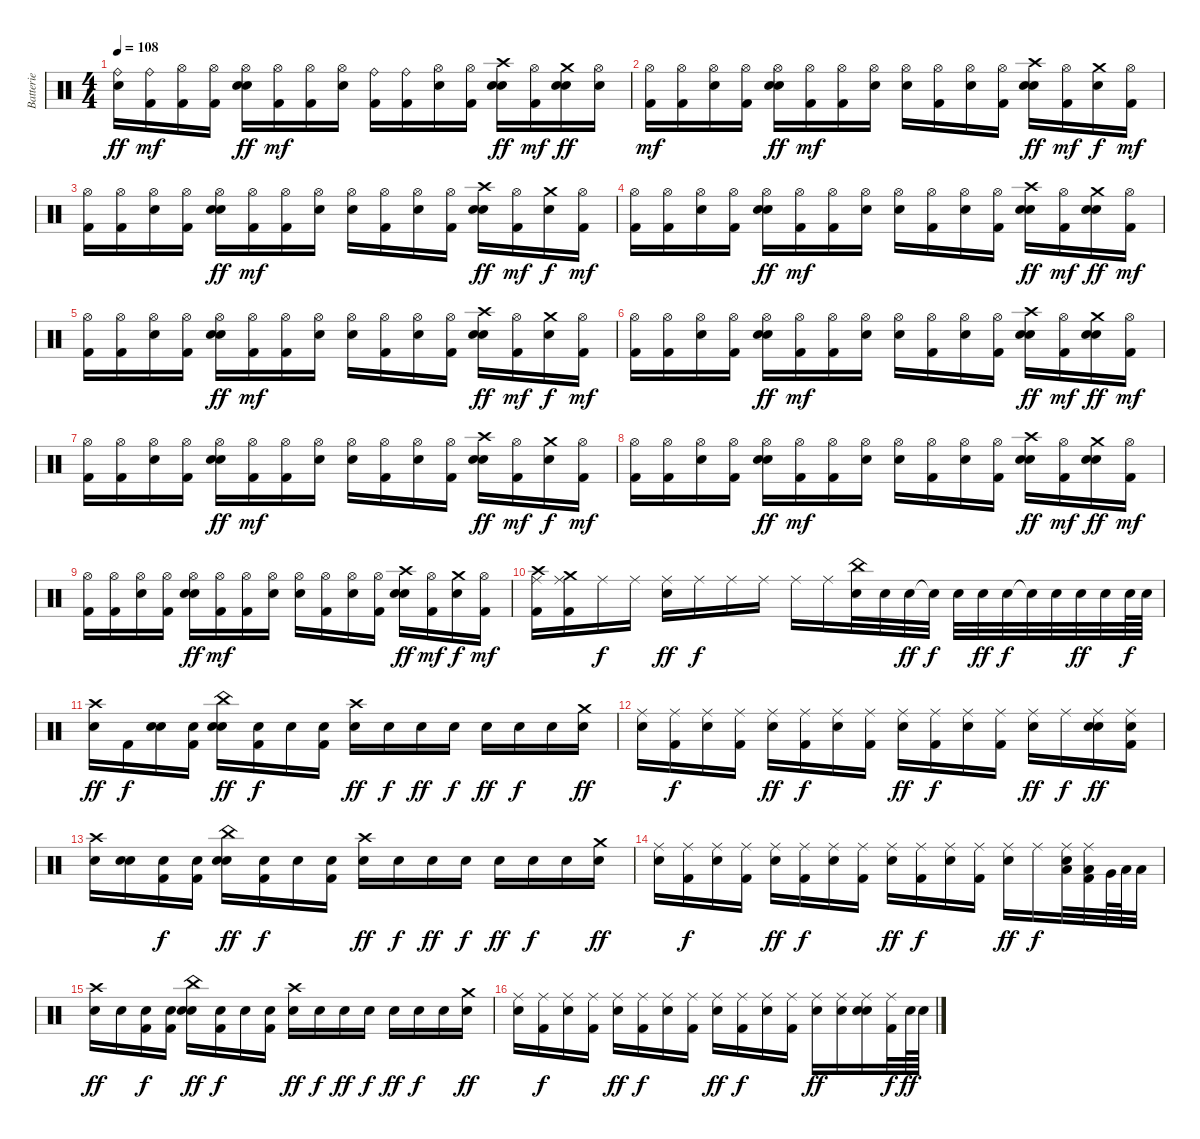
\track ("Batterie" "Batterie") {instrument percussion}
\staff {score}
\articulation defaults
\ts (4 4)
\tempo 108
\clef neutral
\ks c
("Ride (bell)" "Snare (hit) 2").16{dy ff} ("Ride (bell)" "Kick (hit) 2").16{dy mf} ("Hi-Hat (open)" "Kick (hit) 2").16 ("Hi-Hat (open)" "Kick (hit) 2").16 ("Hi-Hat (open)" "Snare (hit) 2" "Snare (hit)").16{dy ff} ("Hi-Hat (open)" "Kick (hit) 2").16{dy mf} ("Hi-Hat (open)" "Kick (hit) 2").16 ("Hi-Hat (open)" "Snare (hit)").16 ("Ride (bell)" "Kick (hit) 2").16 ("Ride (bell)" "Kick (hit) 2").16 ("Hi-Hat (open)" "Snare (hit)").16 ("Hi-Hat (open)" "Kick (hit) 2").16 ("Crash high (hit)" "Snare (hit) 2" "Snare (hit)").16{dy ff} ("Hi-Hat (open)" "Kick (hit) 2").16{dy mf} ("Crash medium (hit)" "Snare (hit) 2" "Snare (hit)").16{dy ff} ("Hi-Hat (open)" "Snare (hit) 2").16 |
("Hi-Hat (open)" "Kick (hit) 2").16{dy mf} ("Hi-Hat (open)" "Kick (hit) 2").16 ("Hi-Hat (open)" "Snare (hit)").16 ("Hi-Hat (open)" "Kick (hit) 2").16 ("Hi-Hat (open)" "Snare (hit) 2" "Snare (hit)").16{dy ff} ("Hi-Hat (open)" "Kick (hit) 2").16{dy mf} ("Hi-Hat (open)" "Kick (hit) 2").16 ("Hi-Hat (open)" "Snare (hit)").16 ("Hi-Hat (open)" "Snare (hit)").16 ("Hi-Hat (open)" "Kick (hit) 2").16 ("Hi-Hat (open)" "Snare (hit)").16 ("Hi-Hat (open)" "Kick (hit) 2").16 ("Crash high (hit)" "Snare (hit) 2" "Snare (hit)").16{dy ff} ("Hi-Hat (open)" "Kick (hit) 2").16{dy mf} ("Crash medium (hit)" "Snare (hit)").16{dy f} ("Hi-Hat (open)" "Kick (hit) 2").16{dy mf} |
("Hi-Hat (open)" "Kick (hit) 2").16 ("Hi-Hat (open)" "Kick (hit) 2").16 ("Hi-Hat (open)" "Snare (hit)").16 ("Hi-Hat (open)" "Kick (hit) 2").16 ("Hi-Hat (open)" "Snare (hit) 2" "Snare (hit)").16{dy ff} ("Hi-Hat (open)" "Kick (hit) 2").16{dy mf} ("Hi-Hat (open)" "Kick (hit) 2").16 ("Hi-Hat (open)" "Snare (hit)").16 ("Hi-Hat (open)" "Snare (hit)").16 ("Hi-Hat (open)" "Kick (hit) 2").16 ("Hi-Hat (open)" "Snare (hit)").16 ("Hi-Hat (open)" "Kick (hit) 2").16 ("Crash high (hit)" "Snare (hit) 2" "Snare (hit)").16{dy ff} ("Hi-Hat (open)" "Kick (hit) 2").16{dy mf} ("Crash medium (hit)" "Snare (hit)").16{dy f} ("Hi-Hat (open)" "Kick (hit) 2").16{dy mf} |
("Hi-Hat (open)" "Kick (hit) 2").16 ("Hi-Hat (open)" "Kick (hit) 2").16 ("Hi-Hat (open)" "Snare (hit)").16 ("Hi-Hat (open)" "Kick (hit) 2").16 ("Hi-Hat (open)" "Snare (hit) 2" "Snare (hit)").16{dy ff} ("Hi-Hat (open)" "Kick (hit) 2").16{dy mf} ("Hi-Hat (open)" "Kick (hit) 2").16 ("Hi-Hat (open)" "Snare (hit)").16 ("Hi-Hat (open)" "Snare (hit)").16 ("Hi-Hat (open)" "Kick (hit) 2").16 ("Hi-Hat (open)" "Snare (hit)").16 ("Hi-Hat (open)" "Kick (hit) 2").16 ("Crash high (hit)" "Snare (hit) 2" "Snare (hit)").16{dy ff} ("Hi-Hat (open)" "Kick (hit) 2").16{dy mf} ("Crash medium (hit)" "Snare (hit) 2" "Snare (hit)").16{dy ff} ("Hi-Hat (open)" "Kick (hit) 2").16{dy mf} |
("Hi-Hat (open)" "Kick (hit) 2").16 ("Hi-Hat (open)" "Kick (hit) 2").16 ("Hi-Hat (open)" "Snare (hit)").16 ("Hi-Hat (open)" "Kick (hit) 2").16 ("Hi-Hat (open)" "Snare (hit) 2" "Snare (hit)").16{dy ff} ("Hi-Hat (open)" "Kick (hit) 2").16{dy mf} ("Hi-Hat (open)" "Kick (hit) 2").16 ("Hi-Hat (open)" "Snare (hit)").16 ("Hi-Hat (open)" "Snare (hit)").16 ("Hi-Hat (open)" "Kick (hit) 2").16 ("Hi-Hat (open)" "Snare (hit)").16 ("Hi-Hat (open)" "Kick (hit) 2").16 ("Crash high (hit)" "Snare (hit) 2" "Snare (hit)").16{dy ff} ("Hi-Hat (open)" "Kick (hit) 2").16{dy mf} ("Crash medium (hit)" "Snare (hit)").16{dy f} ("Hi-Hat (open)" "Kick (hit) 2").16{dy mf} |
("Hi-Hat (open)" "Kick (hit) 2").16 ("Hi-Hat (open)" "Kick (hit) 2").16 ("Hi-Hat (open)" "Snare (hit)").16 ("Hi-Hat (open)" "Kick (hit) 2").16 ("Hi-Hat (open)" "Snare (hit) 2" "Snare (hit)").16{dy ff} ("Hi-Hat (open)" "Kick (hit) 2").16{dy mf} ("Hi-Hat (open)" "Kick (hit) 2").16 ("Hi-Hat (open)" "Snare (hit)").16 ("Hi-Hat (open)" "Snare (hit)").16 ("Hi-Hat (open)" "Kick (hit) 2").16 ("Hi-Hat (open)" "Snare (hit)").16 ("Hi-Hat (open)" "Kick (hit) 2").16 ("Crash high (hit)" "Snare (hit) 2" "Snare (hit)").16{dy ff} ("Hi-Hat (open)" "Kick (hit) 2").16{dy mf} ("Crash medium (hit)" "Snare (hit) 2" "Snare (hit)").16{dy ff} ("Hi-Hat (open)" "Kick (hit) 2").16{dy mf} |
("Hi-Hat (open)" "Kick (hit) 2").16 ("Hi-Hat (open)" "Kick (hit) 2").16 ("Hi-Hat (open)" "Snare (hit)").16 ("Hi-Hat (open)" "Kick (hit) 2").16 ("Hi-Hat (open)" "Snare (hit) 2" "Snare (hit)").16{dy ff} ("Hi-Hat (open)" "Kick (hit) 2").16{dy mf} ("Hi-Hat (open)" "Kick (hit) 2").16 ("Hi-Hat (open)" "Snare (hit)").16 ("Hi-Hat (open)" "Snare (hit)").16 ("Hi-Hat (open)" "Kick (hit) 2").16 ("Hi-Hat (open)" "Snare (hit)").16 ("Hi-Hat (open)" "Kick (hit) 2").16 ("Crash high (hit)" "Snare (hit) 2" "Snare (hit)").16{dy ff} ("Hi-Hat (open)" "Kick (hit) 2").16{dy mf} ("Crash medium (hit)" "Snare (hit)").16{dy f} ("Hi-Hat (open)" "Kick (hit) 2").16{dy mf} |
("Hi-Hat (open)" "Kick (hit) 2").16 ("Hi-Hat (open)" "Kick (hit) 2").16 ("Hi-Hat (open)" "Snare (hit)").16 ("Hi-Hat (open)" "Kick (hit) 2").16 ("Hi-Hat (open)" "Snare (hit) 2" "Snare (hit)").16{dy ff} ("Hi-Hat (open)" "Kick (hit) 2").16{dy mf} ("Hi-Hat (open)" "Kick (hit) 2").16 ("Hi-Hat (open)" "Snare (hit)").16 ("Hi-Hat (open)" "Snare (hit)").16 ("Hi-Hat (open)" "Kick (hit) 2").16 ("Hi-Hat (open)" "Snare (hit)").16 ("Hi-Hat (open)" "Kick (hit) 2").16 ("Crash high (hit)" "Snare (hit) 2" "Snare (hit)").16{dy ff} ("Hi-Hat (open)" "Kick (hit) 2").16{dy mf} ("Crash medium (hit)" "Snare (hit) 2" "Snare (hit)").16{dy ff} ("Hi-Hat (open)" "Kick (hit) 2").16{dy mf} |
("Hi-Hat (open)" "Kick (hit) 2").16 ("Hi-Hat (open)" "Kick (hit) 2").16 ("Hi-Hat (open)" "Snare (hit)").16 ("Hi-Hat (open)" "Kick (hit) 2").16 ("Hi-Hat (open)" "Snare (hit) 2" "Snare (hit)").16{dy ff} ("Hi-Hat (open)" "Kick (hit) 2").16{dy mf} ("Hi-Hat (open)" "Kick (hit) 2").16 ("Hi-Hat (open)" "Snare (hit)").16 ("Hi-Hat (open)" "Snare (hit)").16 ("Hi-Hat (open)" "Kick (hit) 2").16 ("Hi-Hat (open)" "Snare (hit)").16 ("Hi-Hat (open)" "Kick (hit) 2").16 ("Crash high (hit)" "Snare (hit) 2" "Snare (hit)").16{dy ff} ("Hi-Hat (open)" "Kick (hit) 2").16{dy mf} ("Crash medium (hit)" "Snare (hit)").16{dy f} ("Hi-Hat (open)" "Kick (hit) 2").16{dy mf} |
("Crash high (hit)" "Ride (middle)" "Kick (hit) 2").16 ("Crash medium (hit)" "Ride (middle)" "Kick (hit) 2").16 "Ride (middle)".16{dy f} "Ride (middle)".16 ("Ride (middle)" "Snare (hit) 2").16{dy ff} "Ride (middle)".16{dy f} "Ride (middle)".16 "Ride (middle)".16 "Ride (middle)".16 "Ride (middle)".16 ("China (hit)" "Snare (hit) 2").32 "Snare (hit) 2".32 "Snare (hit) 2".32{dy ff} "Snare (hit) 2"{t}.32{dy f} "Snare (hit) 2".32 "Snare (hit) 2".32{dy ff} "Snare (hit) 2".32{dy f} "Snare (hit) 2"{t}.32 "Snare (hit) 2".32 "Snare (hit) 2".32{dy ff} "Snare (hit) 2".32 "Snare (hit) 2".64{dy f} "Snare (hit) 2".64 |
("Crash high (hit)" "Snare (hit) 2").16{dy ff} "Kick (hit) 2".16{dy f} ("Snare (hit)" "Snare (hit)").16 ("Snare (hit)" "Kick (hit) 2").16 ("China (hit)" "Snare (hit) 2" "Snare (hit)").16{dy ff} ("Snare (hit)" "Kick (hit) 2").16{dy f} "Snare (hit)".16 ("Snare (hit)" "Kick (hit) 2").16 ("Crash high (hit)" "Snare (hit) 2").16{dy ff} "Snare (hit)".16{dy f} "Snare (hit) 2".16{dy ff} "Snare (hit)".16{dy f} "Snare (hit) 2".16{dy ff} "Snare (hit)".16{dy f} "Snare (hit) 2".16 ("Crash medium (hit)" "Snare (hit) 2").16{dy ff} |
("Ride (middle)" "Snare (hit) 2").16 ("Ride (middle)" "Kick (hit) 2").16{dy f} ("Ride (middle)" "Snare (hit)").16 ("Ride (middle)" "Kick (hit) 2").16 ("Ride (middle)" "Snare (hit) 2").16{dy ff} ("Ride (middle)" "Kick (hit) 2").16{dy f} ("Ride (middle)" "Snare (hit)").16 ("Ride (middle)" "Kick (hit) 2").16 ("Ride (middle)" "Snare (hit) 2").16{dy ff} ("Ride (middle)" "Kick (hit) 2").16{dy f} ("Ride (middle)" "Snare (hit)").16 ("Ride (middle)" "Kick (hit) 2").16 ("Ride (middle)" "Snare (hit) 2").16{dy ff} "Ride (middle)".16{dy f} ("Ride (middle)" "Snare (hit) 2" "Snare (hit)").16{dy ff} ("Ride (middle)" "Snare (hit) 2" "Kick (hit) 2").16 |
("Crash high (hit)" "Snare (hit) 2").16 ("Snare (hit) 2" "Snare (hit)").16 ("Snare (hit)" "Kick (hit) 2").16{dy f} ("Snare (hit)" "Kick (hit) 2").16 ("China (hit)" "Snare (hit) 2" "Snare (hit)").16{dy ff} ("Snare (hit)" "Kick (hit) 2").16{dy f} "Snare (hit)".16 ("Snare (hit)" "Kick (hit) 2").16 ("Crash high (hit)" "Snare (hit) 2").16{dy ff} "Snare (hit)".16{dy f} "Snare (hit) 2".16{dy ff} "Snare (hit)".16{dy f} "Snare (hit) 2".16{dy ff} "Snare (hit) 2".16{dy f} "Snare (hit)".16 ("Crash medium (hit)" "Snare (hit) 2").16{dy ff} |
("Ride (middle)" "Snare (hit) 2").16 ("Ride (middle)" "Kick (hit) 2").16{dy f} ("Ride (middle)" "Snare (hit)").16 ("Ride (middle)" "Kick (hit) 2").16 ("Ride (middle)" "Snare (hit) 2").16{dy ff} ("Ride (middle)" "Kick (hit) 2").16{dy f} ("Ride (middle)" "Snare (hit)").16 ("Ride (middle)" "Kick (hit) 2").16 ("Ride (middle)" "Snare (hit) 2").16{dy ff} ("Ride (middle)" "Kick (hit) 2").16{dy f} ("Ride (middle)" "Snare (hit)").16 ("Ride (middle)" "Kick (hit) 2").16 ("Ride (middle)" "Snare (hit) 2").16{dy ff} "Ride (middle)".16{dy f} ("Low Tom (hit)" "Ride (middle)" "Snare (hit)").32 ("Low Tom (hit)" "Ride (middle)" "Kick (hit) 2").32 "Very Low Tom (hit)".64 "Low Floor Tom (hit)".64 "Low Floor Tom (hit)".32 |
("Crash high (hit)" "Snare (hit) 2").16{dy ff} "Snare (hit) 2".16 ("Snare (hit)" "Kick (hit) 2").16{dy f} ("Snare (hit)" "Kick (hit) 2").16 ("China (hit)" "Snare (hit) 2" "Snare (hit)").16{dy ff} ("Snare (hit)" "Kick (hit) 2").16{dy f} "Snare (hit)".16 ("Snare (hit)" "Kick (hit) 2").16 ("Crash high (hit)" "Snare (hit) 2").16{dy ff} "Snare (hit)".16{dy f} "Snare (hit) 2".16{dy ff} "Snare (hit)".16{dy f} "Snare (hit) 2".16{dy ff} "Snare (hit) 2".16{dy f} "Snare (hit)".16 ("Crash medium (hit)" "Snare (hit) 2").16{dy ff} |
("Ride (middle)" "Snare (hit) 2").16 ("Ride (middle)" "Kick (hit) 2").16{dy f} ("Ride (middle)" "Snare (hit)").16 ("Ride (middle)" "Kick (hit) 2").16 ("Ride (middle)" "Snare (hit) 2").16{dy ff} ("Ride (middle)" "Kick (hit) 2").16{dy f} ("Ride (middle)" "Snare (hit)").16 ("Ride (middle)" "Kick (hit) 2").16 ("Ride (middle)" "Snare (hit) 2").16{dy ff} ("Ride (middle)" "Kick (hit) 2").16{dy f} ("Ride (middle)" "Snare (hit)").16 ("Ride (middle)" "Kick (hit) 2").16 ("Ride (middle)" "Snare (hit) 2").16{dy ff} ("Ride (middle)" "Snare (hit)").16 ("Ride (middle)" "Snare (hit)" "Snare (hit)").16 ("Ride (middle)" "Kick (hit) 2").32{dy f} "Snare (hit) 2".64{dy ff} "Snare (hit) 2".64
